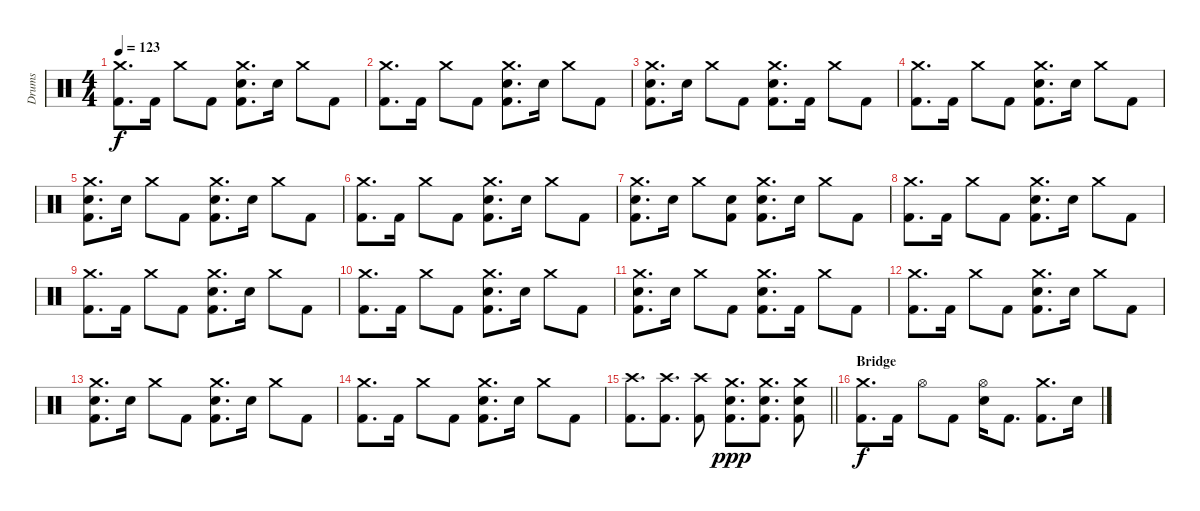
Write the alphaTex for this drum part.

\track ("Drums" "Drums") {instrument percussion}
\staff {score}
\articulation defaults
\ts (4 4)
\tempo 123
\clef neutral
\ks c
("Crash medium (hit)" "Kick (hit) 2").8{d dy f} "Kick (hit) 2".16 "Crash medium (hit)".8 "Kick (hit) 2".8 ("Crash medium (hit)" "Electric Snare (hit)" "Kick (hit) 2").8{d} "Electric Snare (hit)".16 "Crash medium (hit)".8 "Kick (hit) 2".8 |
("Crash medium (hit)" "Kick (hit) 2").8{d} "Kick (hit) 2".16 "Crash medium (hit)".8 "Kick (hit) 2".8 ("Crash medium (hit)" "Electric Snare (hit)" "Kick (hit) 2").8{d} "Electric Snare (hit)".16 "Crash medium (hit)".8 "Kick (hit) 2".8 |
("Crash medium (hit)" "Electric Snare (hit)" "Kick (hit) 2").8{d} "Electric Snare (hit)".16 "Crash medium (hit)".8 "Kick (hit) 2".8 ("Crash medium (hit)" "Electric Snare (hit)" "Kick (hit) 2").8{d} "Kick (hit) 2".16 "Crash medium (hit)".8 "Kick (hit) 2".8 |
("Crash medium (hit)" "Kick (hit) 2").8{d} "Kick (hit) 2".16 "Crash medium (hit)".8 "Kick (hit) 2".8 ("Crash medium (hit)" "Electric Snare (hit)" "Kick (hit) 2").8{d} "Electric Snare (hit)".16 "Crash medium (hit)".8 "Kick (hit) 2".8 |
("Crash medium (hit)" "Electric Snare (hit)" "Kick (hit) 2").8{d} "Electric Snare (hit)".16 "Crash medium (hit)".8 "Kick (hit) 2".8 ("Crash medium (hit)" "Electric Snare (hit)" "Kick (hit) 2").8{d} "Electric Snare (hit)".16 "Crash medium (hit)".8 "Kick (hit) 2".8 |
("Crash medium (hit)" "Kick (hit) 2").8{d} "Kick (hit) 2".16 "Crash medium (hit)".8 "Kick (hit) 2".8 ("Crash medium (hit)" "Electric Snare (hit)" "Kick (hit) 2").8{d} "Electric Snare (hit)".16 "Crash medium (hit)".8 "Kick (hit) 2".8 |
("Crash medium (hit)" "Electric Snare (hit)" "Kick (hit) 2").8{d} "Electric Snare (hit)".16 "Crash medium (hit)".8 ("Electric Snare (hit)" "Kick (hit) 2").8 ("Crash medium (hit)" "Electric Snare (hit)" "Kick (hit) 2").8{d} "Electric Snare (hit)".16 "Crash medium (hit)".8 "Kick (hit) 2".8 |
("Crash medium (hit)" "Kick (hit) 2").8{d} "Kick (hit) 2".16 "Crash medium (hit)".8 "Kick (hit) 2".8 ("Crash medium (hit)" "Electric Snare (hit)" "Kick (hit) 2").8{d} "Electric Snare (hit)".16 "Crash medium (hit)".8 "Kick (hit) 2".8 |
("Crash medium (hit)" "Kick (hit) 2").8{d} "Kick (hit) 2".16 "Crash medium (hit)".8 "Kick (hit) 2".8 ("Crash medium (hit)" "Electric Snare (hit)" "Kick (hit) 2").8{d} "Electric Snare (hit)".16 "Crash medium (hit)".8 "Kick (hit) 2".8 |
("Crash medium (hit)" "Kick (hit) 2").8{d} "Kick (hit) 2".16 "Crash medium (hit)".8 "Kick (hit) 2".8 ("Crash medium (hit)" "Electric Snare (hit)" "Kick (hit) 2").8{d} "Electric Snare (hit)".16 "Crash medium (hit)".8 "Kick (hit) 2".8 |
("Crash medium (hit)" "Electric Snare (hit)" "Kick (hit) 2").8{d} "Electric Snare (hit)".16 "Crash medium (hit)".8 "Kick (hit) 2".8 ("Crash medium (hit)" "Electric Snare (hit)" "Kick (hit) 2").8{d} "Kick (hit) 2".16 "Crash medium (hit)".8 "Kick (hit) 2".8 |
("Crash medium (hit)" "Kick (hit) 2").8{d} "Kick (hit) 2".16 "Crash medium (hit)".8 "Kick (hit) 2".8 ("Crash medium (hit)" "Electric Snare (hit)" "Kick (hit) 2").8{d} "Electric Snare (hit)".16 "Crash medium (hit)".8 "Kick (hit) 2".8 |
("Crash medium (hit)" "Electric Snare (hit)" "Kick (hit) 2").8{d} "Electric Snare (hit)".16 "Crash medium (hit)".8 "Kick (hit) 2".8 ("Crash medium (hit)" "Electric Snare (hit)" "Kick (hit) 2").8{d} "Electric Snare (hit)".16 "Crash medium (hit)".8 "Kick (hit) 2".8 |
("Crash medium (hit)" "Kick (hit) 2").8{d} "Kick (hit) 2".16 "Crash medium (hit)".8 "Kick (hit) 2".8 ("Crash medium (hit)" "Electric Snare (hit)" "Kick (hit) 2").8{d} "Electric Snare (hit)".16 "Crash medium (hit)".8 "Kick (hit) 2".8 |
\barLineRight lightlight
("Crash high (hit)" "Kick (hit) 2").8{d} ("Crash high (hit)" "Kick (hit) 2").8{d} ("Crash high (hit)" "Kick (hit) 2").8 ("Crash medium (hit)" "Electric Snare (hit)" "Kick (hit) 2").8{d dy ppp} ("Crash medium (hit)" "Electric Snare (hit)" "Kick (hit) 2").8{d} ("Crash medium (hit)" "Electric Snare (hit)" "Kick (hit) 2").8 |
\section ("" "Bridge")
("Crash medium (hit)" "Kick (hit) 2").8{d dy f} "Kick (hit) 2".16 "Hi-Hat (open)".8 "Kick (hit) 2".8 ("Hi-Hat (open)" "Electric Snare (hit)").16 "Kick (hit) 2".8{d} ("Crash medium (hit)" "Kick (hit) 2").8{d} "Electric Snare (hit)".16
